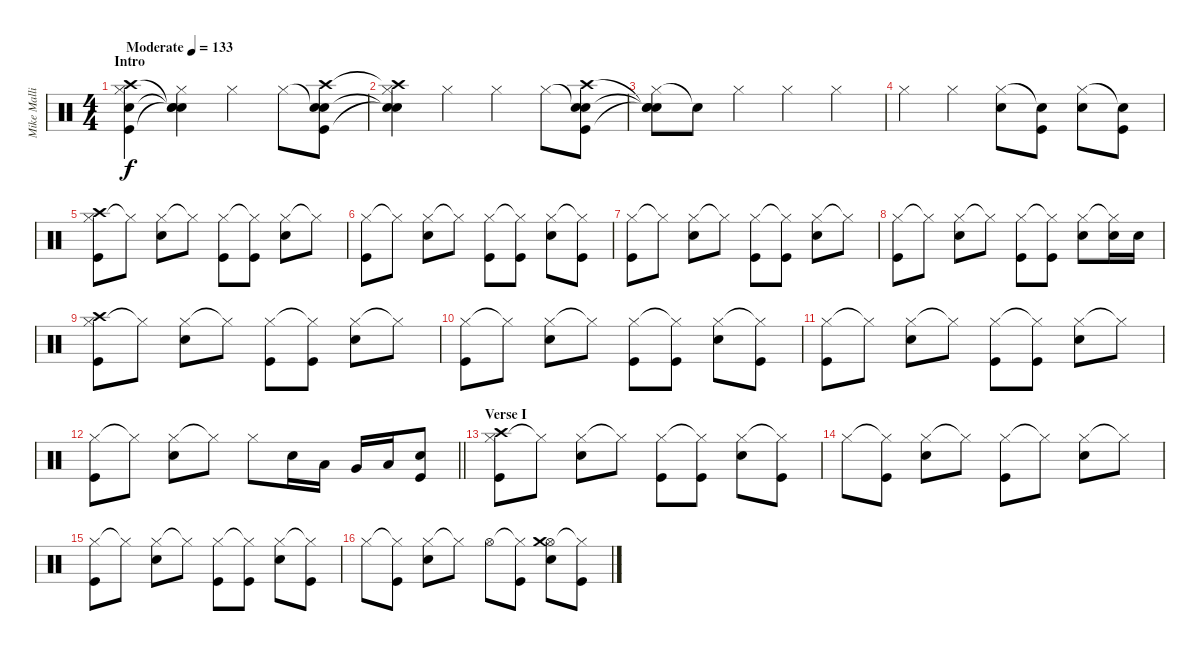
\track ("Mike Mallinin" "Mike Malli") {instrument percussion}
\staff {score}
\articulation defaults
\ts (4 4)
\section ("" "Intro")
\tempo (133 "Moderate")
\clef neutral
\ks c
("Hi-Hat (closed)" "Crash high (hit)" "Snare (hit) 2" "Kick (hit)").4{dy f} ("Hi-Hat (closed)" "Snare (hit)"{t} "Snare (hit)"{t} "Snare (hit)"{t}).4 "Hi-Hat (closed)".4 "Hi-Hat (closed)".8 ("Snare (hit)"{t} "Crash high (hit)" "Snare (hit) 2" "Kick (hit)").8 |
("Hi-Hat (closed)" "Crash high (hit)"{t} "Snare (hit)"{t} "Snare (hit)"{t}).4 "Hi-Hat (closed)".4 "Hi-Hat (closed)".4 "Hi-Hat (closed)".8 ("Snare (hit)"{t} "Crash high (hit)" "Snare (hit) 2" "Kick (hit)").8 |
("Hi-Hat (closed)" "Snare (hit)"{t} "Snare (hit)"{t} "Snare (hit)"{t}).8 "Snare (hit)"{t}.8 "Hi-Hat (closed)".4 "Hi-Hat (closed)".4 "Hi-Hat (closed)".4 |
"Hi-Hat (closed)".4 "Hi-Hat (closed)".4 ("Hi-Hat (closed)" "Snare (hit) 2").8 ("Snare (hit)"{t} "Kick (hit)").8 ("Hi-Hat (closed)" "Snare (hit) 2").8 ("Snare (hit)"{t} "Kick (hit)").8 |
("Hi-Hat (closed)" "Crash high (hit)" "Kick (hit)").8 "Hi-Hat (closed)"{t}.8 ("Hi-Hat (closed)" "Snare (hit) 2").8 "Hi-Hat (closed)"{t}.8 ("Hi-Hat (closed)" "Kick (hit)").8 ("Hi-Hat (closed)"{t} "Kick (hit)").8 ("Hi-Hat (closed)" "Snare (hit) 2").8 "Hi-Hat (closed)"{t}.8 |
("Hi-Hat (closed)" "Kick (hit)").8 "Hi-Hat (closed)"{t}.8 ("Hi-Hat (closed)" "Snare (hit) 2").8 "Hi-Hat (closed)"{t}.8 ("Hi-Hat (closed)" "Kick (hit)").8 ("Hi-Hat (closed)"{t} "Kick (hit)").8 ("Hi-Hat (closed)" "Snare (hit) 2").8 ("Hi-Hat (closed)"{t} "Kick (hit)").8 |
("Hi-Hat (closed)" "Kick (hit)").8 "Hi-Hat (closed)"{t}.8 ("Hi-Hat (closed)" "Snare (hit) 2").8 "Hi-Hat (closed)"{t}.8 ("Hi-Hat (closed)" "Kick (hit)").8 ("Hi-Hat (closed)"{t} "Kick (hit)").8 ("Hi-Hat (closed)" "Snare (hit) 2").8 "Hi-Hat (closed)"{t}.8 |
("Hi-Hat (closed)" "Kick (hit)").8 "Hi-Hat (closed)"{t}.8 ("Hi-Hat (closed)" "Snare (hit) 2").8 "Hi-Hat (closed)"{t}.8 ("Hi-Hat (closed)" "Kick (hit)").8 ("Hi-Hat (closed)"{t} "Kick (hit)").8 ("Hi-Hat (closed)" "Snare (hit) 2").8 ("Hi-Hat (closed)"{t} "Snare (hit) 2").16 "Snare (hit) 2".16 |
("Hi-Hat (closed)" "Crash high (hit)" "Kick (hit)").8 "Hi-Hat (closed)"{t}.8 ("Hi-Hat (closed)" "Snare (hit) 2").8 "Hi-Hat (closed)"{t}.8 ("Hi-Hat (closed)" "Kick (hit)").8 ("Hi-Hat (closed)"{t} "Kick (hit)").8 ("Hi-Hat (closed)" "Snare (hit) 2").8 "Hi-Hat (closed)"{t}.8 |
("Hi-Hat (closed)" "Kick (hit)").8 "Hi-Hat (closed)"{t}.8 ("Hi-Hat (closed)" "Snare (hit) 2").8 "Hi-Hat (closed)"{t}.8 ("Hi-Hat (closed)" "Kick (hit)").8 ("Hi-Hat (closed)"{t} "Kick (hit)").8 ("Hi-Hat (closed)" "Snare (hit) 2").8 ("Hi-Hat (closed)"{t} "Kick (hit)").8 |
("Hi-Hat (closed)" "Kick (hit)").8 "Hi-Hat (closed)"{t}.8 ("Hi-Hat (closed)" "Snare (hit) 2").8 "Hi-Hat (closed)"{t}.8 ("Hi-Hat (closed)" "Kick (hit)").8 ("Hi-Hat (closed)"{t} "Kick (hit)").8 ("Hi-Hat (closed)" "Snare (hit) 2").8 "Hi-Hat (closed)"{t}.8 |
\barLineRight lightlight
("Hi-Hat (closed)" "Kick (hit)").8 "Hi-Hat (closed)"{t}.8 ("Hi-Hat (closed)" "Snare (hit) 2").8 "Hi-Hat (closed)"{t}.8 "Hi-Hat (closed)".8 "Snare (hit) 2".16 "Low Tom (hit)".16 "Very Low Tom (hit)".16 "Low Floor Tom (hit)".16 ("Snare (hit) 2" "Kick (hit)").8 |
\section ("" "Verse I")
("Hi-Hat (closed)" "Crash high (hit)" "Kick (hit)").8 "Hi-Hat (closed)"{t}.8 ("Hi-Hat (closed)" "Snare (hit) 2").8 "Hi-Hat (closed)"{t}.8 ("Hi-Hat (closed)" "Kick (hit)").8 ("Hi-Hat (closed)"{t} "Kick (hit)").8 ("Hi-Hat (closed)" "Snare (hit) 2").8 ("Hi-Hat (closed)"{t} "Kick (hit)").8 |
"Hi-Hat (closed)".8 ("Hi-Hat (closed)"{t} "Kick (hit)").8 ("Hi-Hat (closed)" "Snare (hit) 2").8 "Hi-Hat (closed)"{t}.8 ("Hi-Hat (closed)" "Kick (hit)").8 "Hi-Hat (closed)"{t}.8 ("Hi-Hat (closed)" "Snare (hit) 2").8 "Hi-Hat (closed)"{t}.8 |
("Hi-Hat (closed)" "Kick (hit)").8 "Hi-Hat (closed)"{t}.8 ("Hi-Hat (closed)" "Snare (hit) 2").8 "Hi-Hat (closed)"{t}.8 ("Hi-Hat (closed)" "Kick (hit)").8 ("Hi-Hat (closed)"{t} "Kick (hit)").8 ("Hi-Hat (closed)" "Snare (hit) 2").8 ("Hi-Hat (closed)"{t} "Kick (hit)").8 |
"Hi-Hat (closed)".8 ("Hi-Hat (closed)"{t} "Kick (hit)").8 ("Hi-Hat (closed)" "Snare (hit) 2").8 "Hi-Hat (closed)"{t}.8 "Hi-Hat (open)".8 ("Hi-Hat (closed)"{t} "Kick (hit)").8 ("Hi-Hat (open)" "Crash medium (hit)" "Snare (hit) 2").8 ("Hi-Hat (closed)"{t} "Kick (hit)").8
